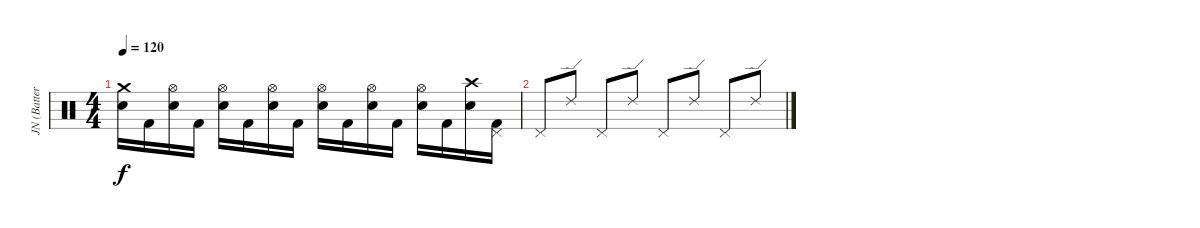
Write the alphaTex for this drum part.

\track ("JN (Batterie)" "JN (Batter") {instrument percussion}
\staff {score}
\articulation defaults
\ts (4 4)
\tempo 120
\clef neutral
\ks c
("Crash medium (hit)" "Electric Snare (hit)").16{dy f} "Kick (hit) 2".16 ("Hi-Hat (open)" "Electric Snare (hit)").16 "Kick (hit) 2".16 ("Hi-Hat (open)" "Electric Snare (hit)").16 "Kick (hit) 2".16 ("Hi-Hat (open)" "Electric Snare (hit)").16 "Kick (hit) 2".16 ("Hi-Hat (open)" "Electric Snare (hit)").16 "Kick (hit) 2".16 ("Hi-Hat (open)" "Electric Snare (hit)").16 "Kick (hit) 2".16 ("Hi-Hat (open)" "Electric Snare (hit)").16 "Kick (hit) 2".16 ("Crash high (hit)" "Electric Snare (hit)").16 ("Pedal Hi-Hat (hit)" "Kick (hit) 2").16 |
"Pedal Hi-Hat (hit)".8 "Ride (edge) 2".8 "Pedal Hi-Hat (hit)".8 "Ride (edge) 2".8 "Pedal Hi-Hat (hit)".8 "Ride (edge) 2".8 "Pedal Hi-Hat (hit)".8 "Ride (edge) 2".8
